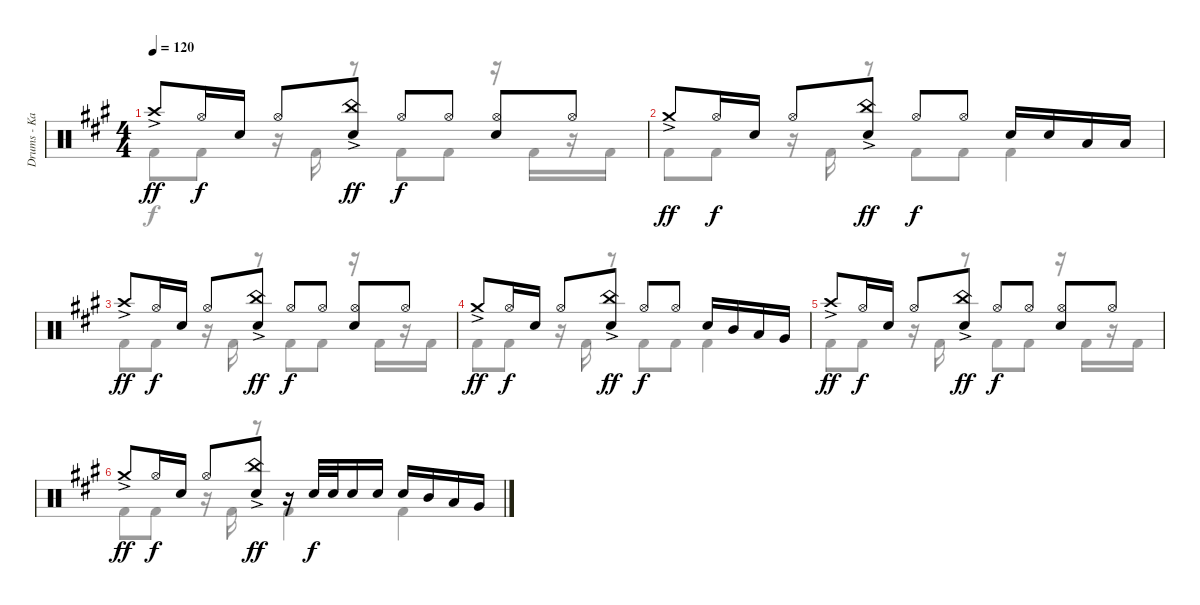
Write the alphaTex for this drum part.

\track ("Drums - Kai" "Drums - Ka") {instrument percussion}
\staff {score}
\articulation defaults
\voice
\ts (4 4)
\tempo 120
\clef neutral
\ks a "Crash high (hit)"{ac}.8{dy ff} "Hi-Hat (open)".16{dy f} "Snare (hit) 2".16 "Hi-Hat (open)".8
("China (hit)"{ac} "Snare (hit) 2").8{dy ff} "Hi-Hat (open)".8{dy f} "Hi-Hat (open)".8 ("Hi-Hat (open)" "Snare (hit) 2").8 "Hi-Hat (open)".8 |
"Crash medium (hit)"{ac}.8{dy ff} "Hi-Hat (open)".16{dy f} "Snare (hit) 2".16 "Hi-Hat (open)".8 ("China (hit)"{ac} "Snare (hit) 2").8{dy ff} "Hi-Hat (open)".8{dy f} "Hi-Hat (open)".8 "Snare (hit) 2".16 "Snare (hit) 2".16 "Low Tom (hit)".16 "Low Tom (hit)".16 |
"Crash high (hit)"{ac}.8{dy ff} "Hi-Hat (open)".16{dy f} "Snare (hit) 2".16 "Hi-Hat (open)".8 ("China (hit)"{ac} "Snare (hit) 2").8{dy ff} "Hi-Hat (open)".8{dy f} "Hi-Hat (open)".8 ("Hi-Hat (open)" "Snare (hit) 2").8 "Hi-Hat (open)".8 |
"Crash medium (hit)"{ac}.8{dy ff} "Hi-Hat (open)".16{dy f} "Snare (hit) 2".16 "Hi-Hat (open)".8 ("China (hit)"{ac} "Snare (hit) 2").8{dy ff} "Hi-Hat (open)".8{dy f} "Hi-Hat (open)".8 "Snare (hit) 2".16 "Mid Tom (hit)".16 "Low Tom (hit)".16 "Very Low Tom (hit)".16 |
"Crash high (hit)"{ac}.8{dy ff} "Hi-Hat (open)".16{dy f} "Snare (hit) 2".16 "Hi-Hat (open)".8 ("China (hit)"{ac} "Snare (hit) 2").8{dy ff} "Hi-Hat (open)".8{dy f} "Hi-Hat (open)".8 ("Hi-Hat (open)" "Snare (hit) 2").8 "Hi-Hat (open)".8 |
"Crash medium (hit)"{ac}.8{dy ff} "Hi-Hat (open)".16{dy f} "Snare (hit) 2".16 "Hi-Hat (open)".8 ("China (hit)"{ac} "Snare (hit) 2").8{dy ff} r.16 "Snare (hit) 2".32{dy f} "Snare (hit) 2".32 "Snare (hit) 2".16 "Snare (hit) 2".16 "Snare (hit) 2".16 "Mid Tom (hit)".16 "Low Tom (hit)".16 "Very Low Tom (hit)".16
\voice
\clef neutral
\ottava regular
\simile none
\ks a "Kick (hit) 2".8{dy f} "Kick (hit) 2".8
r.16 "Kick (hit) 2".16 r.8 "Kick (hit) 2".8 "Kick (hit) 2".8 r.16 "Kick (hit) 2".16 r.16 "Kick (hit) 2".16 |
"Kick (hit) 2".8 "Kick (hit) 2".8 r.16 "Kick (hit) 2".16 r.8 "Kick (hit) 2".8 "Kick (hit) 2".8 "Kick (hit) 2".4 |
"Kick (hit) 2".8 "Kick (hit) 2".8 r.16 "Kick (hit) 2".16 r.8 "Kick (hit) 2".8 "Kick (hit) 2".8 r.16 "Kick (hit) 2".16 r.16 "Kick (hit) 2".16 |
"Kick (hit) 2".8 "Kick (hit) 2".8 r.16 "Kick (hit) 2".16 r.8 "Kick (hit) 2".8 "Kick (hit) 2".8 "Kick (hit) 2".4 |
"Kick (hit) 2".8 "Kick (hit) 2".8 r.16 "Kick (hit) 2".16 r.8 "Kick (hit) 2".8 "Kick (hit) 2".8 r.16 "Kick (hit) 2".16 r.16 "Kick (hit) 2".16 |
"Kick (hit) 2".8 "Kick (hit) 2".8 r.16 "Kick (hit) 2".16 r.8 "Kick (hit) 2".4 "Kick (hit) 2".4
